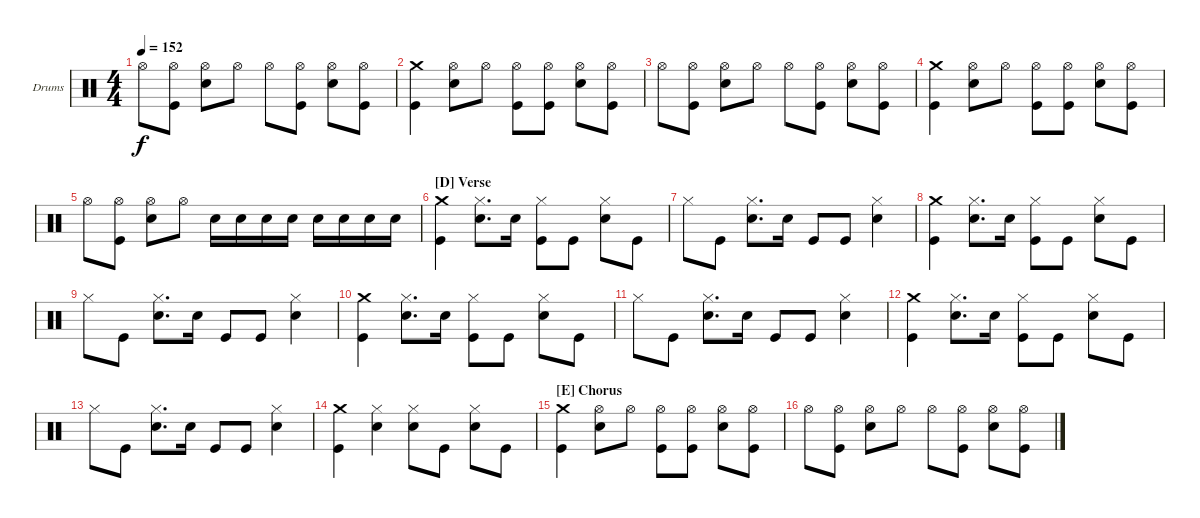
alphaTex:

\defaultSystemsLayout 4
\bracketExtendMode groupsimilarinstruments
\firstSystemTrackNameOrientation horizontal
\otherSystemsTrackNameOrientation horizontal
\track ("Drumkit" "Drums") {instrument percussion}
\staff {score}
\articulation defaults
\ts (4 4)
\tempo 152
\clef neutral
\scale
1.02648
\ks c "Hi-Hat (open)".8{dy f}
("Hi-Hat (open)" "Kick (hit)").8 ("Hi-Hat (open)" "Snare (hit) 2").8 "Hi-Hat (open)".8 "Hi-Hat (open)".8 ("Hi-Hat (open)" "Kick (hit)").8 ("Hi-Hat (open)" "Snare (hit) 2").8 ("Hi-Hat (open)" "Kick (hit)").8 |
\scale
0.973518 ("Crash medium (hit)" "Kick (hit)").4 ("Hi-Hat (open)" "Snare (hit) 2").8 "Hi-Hat (open)".8 ("Hi-Hat (open)" "Kick (hit)").8 ("Hi-Hat (open)" "Kick (hit)").8 ("Hi-Hat (open)" "Snare (hit) 2").8 ("Hi-Hat (open)" "Kick (hit)").8 |
\scale
1.02648 "Hi-Hat (open)".8 ("Hi-Hat (open)" "Kick (hit)").8 ("Hi-Hat (open)" "Snare (hit) 2").8 "Hi-Hat (open)".8 "Hi-Hat (open)".8 ("Hi-Hat (open)" "Kick (hit)").8 ("Hi-Hat (open)" "Snare (hit) 2").8 ("Hi-Hat (open)" "Kick (hit)").8 |
\scale
0.973518 ("Crash medium (hit)" "Kick (hit)").4 ("Hi-Hat (open)" "Snare (hit) 2").8 "Hi-Hat (open)".8 ("Hi-Hat (open)" "Kick (hit)").8 ("Hi-Hat (open)" "Kick (hit)").8 ("Hi-Hat (open)" "Snare (hit) 2").8 ("Hi-Hat (open)" "Kick (hit)").8 |
\scale
1.02648 "Hi-Hat (open)".8 ("Hi-Hat (open)" "Kick (hit)").8 ("Hi-Hat (open)" "Snare (hit) 2").8 "Hi-Hat (open)".8 "Snare (hit) 2".16 "Snare (hit) 2".16 "Snare (hit) 2".16 "Snare (hit) 2".16 "Snare (hit) 2".16 "Snare (hit) 2".16 "Snare (hit) 2".16 "Snare (hit) 2".16 |
\section ("D" "Verse")
\scale
0.973518 ("Crash medium (hit)" "Kick (hit)").4 ("Hi-Hat (closed)" "Snare (hit) 2").8{d} "Snare (hit) 2".16 ("Hi-Hat (closed)" "Kick (hit)").8 "Kick (hit)".8 ("Hi-Hat (closed)" "Snare (hit) 2").8 "Kick (hit)".8 |
\scale
1.02648 "Hi-Hat (closed)".8 "Kick (hit)".8 ("Hi-Hat (closed)" "Snare (hit) 2").8{d} "Snare (hit) 2".16 "Kick (hit)".8 "Kick (hit)".8 ("Hi-Hat (closed)" "Snare (hit) 2").4 |
\scale
0.973518 ("Crash medium (hit)" "Kick (hit)").4 ("Hi-Hat (closed)" "Snare (hit) 2").8{d} "Snare (hit) 2".16 ("Hi-Hat (closed)" "Kick (hit)").8 "Kick (hit)".8 ("Hi-Hat (closed)" "Snare (hit) 2").8 "Kick (hit)".8 |
\scale
1.02648 "Hi-Hat (closed)".8 "Kick (hit)".8 ("Hi-Hat (closed)" "Snare (hit) 2").8{d} "Snare (hit) 2".16 "Kick (hit)".8 "Kick (hit)".8 ("Hi-Hat (closed)" "Snare (hit) 2").4 |
\scale
0.973518 ("Crash medium (hit)" "Kick (hit)").4 ("Hi-Hat (closed)" "Snare (hit) 2").8{d} "Snare (hit) 2".16 ("Hi-Hat (closed)" "Kick (hit)").8 "Kick (hit)".8 ("Hi-Hat (closed)" "Snare (hit) 2").8 "Kick (hit)".8 |
\scale
1.02648 "Hi-Hat (closed)".8 "Kick (hit)".8 ("Hi-Hat (closed)" "Snare (hit) 2").8{d} "Snare (hit) 2".16 "Kick (hit)".8 "Kick (hit)".8 ("Hi-Hat (closed)" "Snare (hit) 2").4 |
\scale
0.973518 ("Crash medium (hit)" "Kick (hit)").4 ("Hi-Hat (closed)" "Snare (hit) 2").8{d} "Snare (hit) 2".16 ("Hi-Hat (closed)" "Kick (hit)").8 "Kick (hit)".8 ("Hi-Hat (closed)" "Snare (hit) 2").8 "Kick (hit)".8 |
\scale
1.02648 "Hi-Hat (closed)".8 "Kick (hit)".8 ("Hi-Hat (closed)" "Snare (hit) 2").8{d} "Snare (hit) 2".16 "Kick (hit)".8 "Kick (hit)".8 ("Hi-Hat (closed)" "Snare (hit) 2").4 |
\scale
0.973518 ("Crash medium (hit)" "Kick (hit)").4 ("Hi-Hat (closed)" "Snare (hit) 2").4 ("Hi-Hat (closed)" "Snare (hit) 2").8 "Kick (hit)".8 ("Hi-Hat (closed)" "Snare (hit) 2").8 "Kick (hit)".8 |
\section ("E" "Chorus")
\scale
1.02648 ("Crash medium (hit)" "Kick (hit)").4 ("Hi-Hat (open)" "Snare (hit) 2").8 "Hi-Hat (open)".8 ("Hi-Hat (open)" "Kick (hit)").8 ("Hi-Hat (open)" "Kick (hit)").8 ("Hi-Hat (open)" "Snare (hit) 2").8 ("Hi-Hat (open)" "Kick (hit)").8 |
\scale
0.973518 "Hi-Hat (open)".8 ("Hi-Hat (open)" "Kick (hit)").8 ("Hi-Hat (open)" "Snare (hit) 2").8 "Hi-Hat (open)".8 "Hi-Hat (open)".8 ("Hi-Hat (open)" "Kick (hit)").8 ("Hi-Hat (open)" "Snare (hit) 2").8 ("Hi-Hat (open)" "Kick (hit)").8
